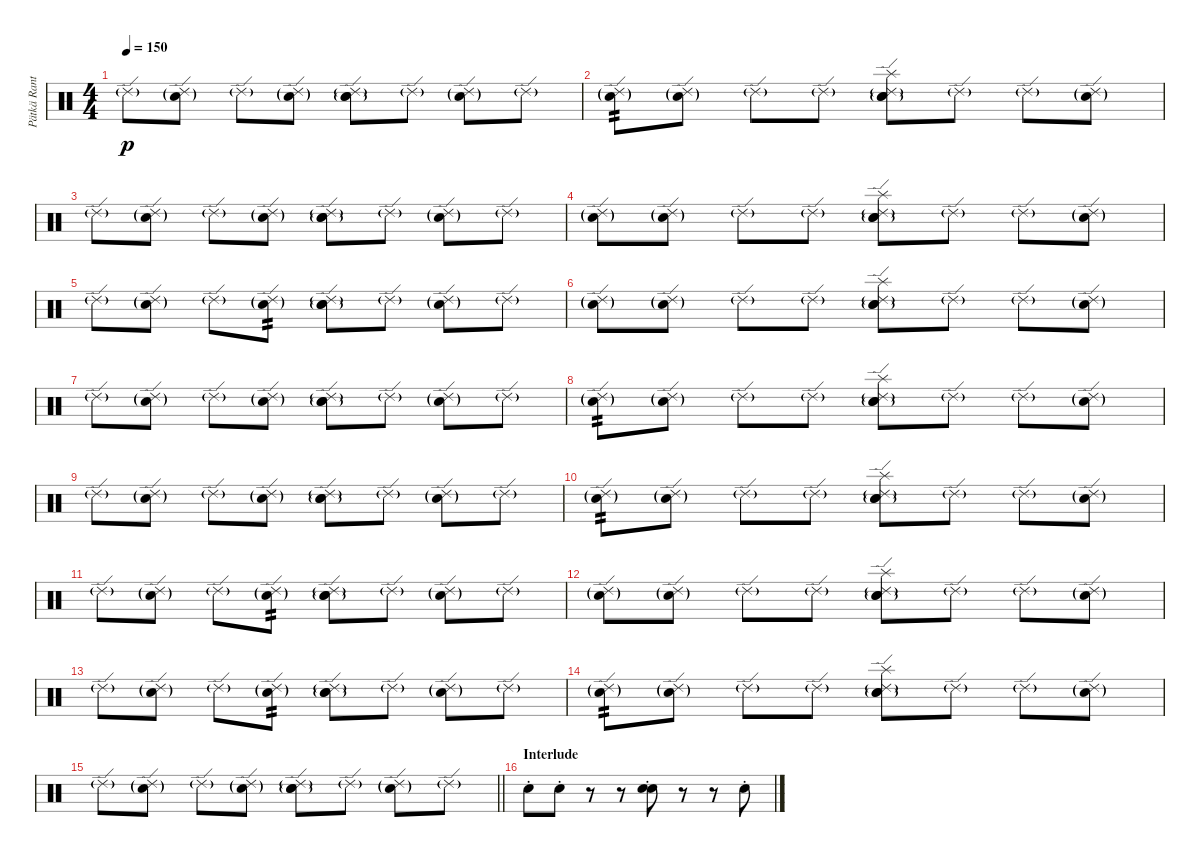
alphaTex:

\track ("Pätkä Rantala (Drums)" "Pätkä Rant") {instrument percussion}
\staff {score}
\articulation defaults
\ts (4 4)
\tempo 150
\clef neutral
\ks c "Ride (edge) 2"{g}.8{dy p}
("Ride (edge) 2"{g} "Snare (hit) 2"{g}).8 "Ride (edge) 2"{g}.8 ("Ride (edge) 2"{g} "Snare (hit) 2"{g}).8 ("Ride (edge) 2"{g} "Hand Clap (hit)" "Electric Snare (hit)"{g}).8 "Ride (edge) 2"{g}.8 ("Ride (edge) 2"{g} "Snare (hit) 2"{g}).8 "Ride (edge) 2"{g}.8 |
("Ride (edge) 2"{g} "Snare (hit) 2"{g}).8{tp 2} ("Ride (edge) 2"{g} "Snare (hit) 2"{g}).8 "Ride (edge) 2"{g}.8 "Ride (edge) 2"{g}.8 ("Splash (hit)" "Ride (edge) 2"{g} "Hand Clap (hit)" "Electric Snare (hit)"{g}).8 "Ride (edge) 2"{g}.8 "Ride (edge) 2"{g}.8 ("Ride (edge) 2"{g} "Snare (hit) 2"{g}).8 |
"Ride (edge) 2"{g}.8 ("Ride (edge) 2"{g} "Snare (hit) 2"{g}).8 "Ride (edge) 2"{g}.8 ("Ride (edge) 2"{g} "Snare (hit) 2"{g}).8 ("Ride (edge) 2"{g} "Hand Clap (hit)" "Electric Snare (hit)"{g}).8 "Ride (edge) 2"{g}.8 ("Ride (edge) 2"{g} "Snare (hit) 2"{g}).8 "Ride (edge) 2"{g}.8 |
("Ride (edge) 2"{g} "Snare (hit) 2"{g}).8 ("Ride (edge) 2"{g} "Snare (hit) 2"{g}).8 "Ride (edge) 2"{g}.8 "Ride (edge) 2"{g}.8 ("Splash (hit)" "Ride (edge) 2"{g} "Hand Clap (hit)" "Electric Snare (hit)"{g}).8 "Ride (edge) 2"{g}.8 "Ride (edge) 2"{g}.8 ("Ride (edge) 2"{g} "Snare (hit) 2"{g}).8 |
"Ride (edge) 2"{g}.8 ("Ride (edge) 2"{g} "Snare (hit) 2"{g}).8 "Ride (edge) 2"{g}.8 ("Ride (edge) 2"{g} "Snare (hit) 2"{g}).8{tp 2} ("Ride (edge) 2"{g} "Hand Clap (hit)" "Electric Snare (hit)"{g}).8 "Ride (edge) 2"{g}.8 ("Ride (edge) 2"{g} "Snare (hit) 2"{g}).8 "Ride (edge) 2"{g}.8 |
("Ride (edge) 2"{g} "Snare (hit) 2"{g}).8 ("Ride (edge) 2"{g} "Snare (hit) 2"{g}).8 "Ride (edge) 2"{g}.8 "Ride (edge) 2"{g}.8 ("Splash (hit)" "Ride (edge) 2"{g} "Hand Clap (hit)" "Electric Snare (hit)"{g}).8 "Ride (edge) 2"{g}.8 "Ride (edge) 2"{g}.8 ("Ride (edge) 2"{g} "Snare (hit) 2"{g}).8 |
"Ride (edge) 2"{g}.8 ("Ride (edge) 2"{g} "Snare (hit) 2"{g}).8 "Ride (edge) 2"{g}.8 ("Ride (edge) 2"{g} "Snare (hit) 2"{g}).8 ("Ride (edge) 2"{g} "Hand Clap (hit)" "Electric Snare (hit)"{g}).8 "Ride (edge) 2"{g}.8 ("Ride (edge) 2"{g} "Snare (hit) 2"{g}).8 "Ride (edge) 2"{g}.8 |
("Ride (edge) 2"{g} "Snare (hit) 2"{g}).8{tp 2} ("Ride (edge) 2"{g} "Snare (hit) 2"{g}).8 "Ride (edge) 2"{g}.8 "Ride (edge) 2"{g}.8 ("Splash (hit)" "Ride (edge) 2"{g} "Hand Clap (hit)" "Electric Snare (hit)"{g}).8 "Ride (edge) 2"{g}.8 "Ride (edge) 2"{g}.8 ("Ride (edge) 2"{g} "Snare (hit) 2"{g}).8 |
"Ride (edge) 2"{g}.8 ("Ride (edge) 2"{g} "Snare (hit) 2"{g}).8 "Ride (edge) 2"{g}.8 ("Ride (edge) 2"{g} "Snare (hit) 2"{g}).8 ("Ride (edge) 2"{g} "Hand Clap (hit)" "Electric Snare (hit)"{g}).8 "Ride (edge) 2"{g}.8 ("Ride (edge) 2"{g} "Snare (hit) 2"{g}).8 "Ride (edge) 2"{g}.8 |
("Ride (edge) 2"{g} "Snare (hit) 2"{g}).8{tp 2} ("Ride (edge) 2"{g} "Snare (hit) 2"{g}).8 "Ride (edge) 2"{g}.8 "Ride (edge) 2"{g}.8 ("Splash (hit)" "Ride (edge) 2"{g} "Hand Clap (hit)" "Electric Snare (hit)"{g}).8 "Ride (edge) 2"{g}.8 "Ride (edge) 2"{g}.8 ("Ride (edge) 2"{g} "Snare (hit) 2"{g}).8 |
"Ride (edge) 2"{g}.8 ("Ride (edge) 2"{g} "Snare (hit) 2"{g}).8 "Ride (edge) 2"{g}.8 ("Ride (edge) 2"{g} "Snare (hit) 2"{g}).8{tp 2} ("Ride (edge) 2"{g} "Hand Clap (hit)" "Electric Snare (hit)"{g}).8 "Ride (edge) 2"{g}.8 ("Ride (edge) 2"{g} "Snare (hit) 2"{g}).8 "Ride (edge) 2"{g}.8 |
("Ride (edge) 2"{g} "Snare (hit) 2"{g}).8 ("Ride (edge) 2"{g} "Snare (hit) 2"{g}).8 "Ride (edge) 2"{g}.8 "Ride (edge) 2"{g}.8 ("Splash (hit)" "Ride (edge) 2"{g} "Hand Clap (hit)" "Electric Snare (hit)"{g}).8 "Ride (edge) 2"{g}.8 "Ride (edge) 2"{g}.8 ("Ride (edge) 2"{g} "Snare (hit) 2"{g}).8 |
"Ride (edge) 2"{g}.8 ("Ride (edge) 2"{g} "Snare (hit) 2"{g}).8 "Ride (edge) 2"{g}.8 ("Ride (edge) 2"{g} "Snare (hit) 2"{g}).8{tp 2} ("Ride (edge) 2"{g} "Hand Clap (hit)" "Electric Snare (hit)"{g}).8 "Ride (edge) 2"{g}.8 ("Ride (edge) 2"{g} "Snare (hit) 2"{g}).8 "Ride (edge) 2"{g}.8 |
("Ride (edge) 2"{g} "Snare (hit) 2"{g}).8{tp 2} ("Ride (edge) 2"{g} "Snare (hit) 2"{g}).8 "Ride (edge) 2"{g}.8 "Ride (edge) 2"{g}.8 ("Splash (hit)" "Ride (edge) 2"{g} "Hand Clap (hit)" "Electric Snare (hit)"{g}).8 "Ride (edge) 2"{g}.8 "Ride (edge) 2"{g}.8 ("Ride (edge) 2"{g} "Snare (hit) 2"{g}).8 |
\barLineRight lightlight "Ride (edge) 2"{g}.8
("Ride (edge) 2"{g} "Snare (hit) 2"{g}).8 "Ride (edge) 2"{g}.8 ("Ride (edge) 2"{g} "Snare (hit) 2"{g}).8 ("Ride (edge) 2"{g} "Hand Clap (hit)" "Electric Snare (hit)"{g}).8 "Ride (edge) 2"{g}.8 ("Ride (edge) 2"{g} "Snare (hit) 2"{g}).8 "Ride (edge) 2"{g}.8 |
\section ("" "Interlude")
"Electric Snare (hit)"{st}.8 "Electric Snare (hit)"{st}.8 r.8 r.8 ("Hand Clap (hit)"{st} "Electric Snare (hit)"{st}).8 r.8 r.8 "Electric Snare (hit)"{st}.8
